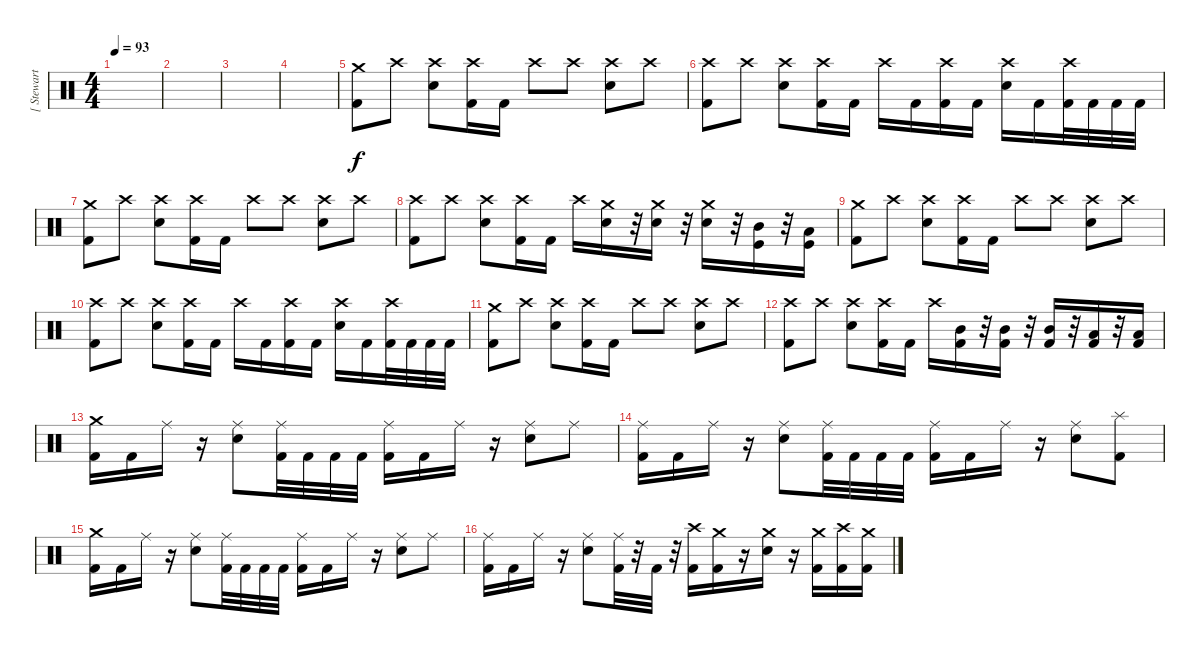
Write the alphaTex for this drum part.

\track ("[ Stewart ]" "[ Stewart ") {instrument percussion}
\staff {score}
\articulation defaults
\ts (4 4)
\tempo 93
\clef neutral
\ks c
|
|
|
|
("Kick (hit) 2" "Crash medium (hit)").8 "Crash high (hit)".8 ("Electric Snare (hit)" "Crash high (hit)").8 ("Kick (hit) 2" "Crash high (hit)").16 "Kick (hit) 2".16 "Crash high (hit)".8 "Crash high (hit)".8 ("Electric Snare (hit)" "Crash high (hit)").8 "Crash high (hit)".8 |
("Kick (hit) 2" "Crash high (hit)").8 "Crash high (hit)".8 ("Electric Snare (hit)" "Crash high (hit)").8 ("Kick (hit) 2" "Crash high (hit)").16 "Kick (hit) 2".16 "Crash high (hit)".16 "Kick (hit) 2".16 ("Kick (hit) 2" "Crash high (hit)").16 "Kick (hit) 2".16 ("Electric Snare (hit)" "Crash high (hit)").16 "Kick (hit) 2".16 ("Kick (hit) 2" "Crash high (hit)").32 "Kick (hit) 2".32 "Kick (hit) 2".32 "Kick (hit) 2".32 |
("Kick (hit) 2" "Crash medium (hit)").8 "Crash high (hit)".8 ("Electric Snare (hit)" "Crash high (hit)").8 ("Kick (hit) 2" "Crash high (hit)").16 "Kick (hit) 2".16 "Crash high (hit)".8 "Crash high (hit)".8 ("Electric Snare (hit)" "Crash high (hit)").8 "Crash high (hit)".8 |
("Kick (hit) 2" "Crash high (hit)").8 "Crash high (hit)".8 ("Electric Snare (hit)" "Crash high (hit)").8 ("Kick (hit) 2" "Crash high (hit)").16 "Kick (hit) 2".16 "Crash high (hit)".16 ("Electric Snare (hit)" "Crash medium (hit)").16 r.32 ("Electric Snare (hit)" "Crash medium (hit)").16 r.32 ("Electric Snare (hit)" "Crash medium (hit)").16 r.32 ("Mid Tom (hit)" "Kick (hit)").16 r.32 ("Low Tom (hit)" "Kick (hit)").16 |
("Kick (hit) 2" "Crash medium (hit)").8 "Crash high (hit)".8 ("Electric Snare (hit)" "Crash high (hit)").8 ("Kick (hit) 2" "Crash high (hit)").16 "Kick (hit) 2".16 "Crash high (hit)".8 "Crash high (hit)".8 ("Electric Snare (hit)" "Crash high (hit)").8 "Crash high (hit)".8 |
("Kick (hit) 2" "Crash high (hit)").8 "Crash high (hit)".8 ("Electric Snare (hit)" "Crash high (hit)").8 ("Kick (hit) 2" "Crash high (hit)").16 "Kick (hit) 2".16 "Crash high (hit)".16 "Kick (hit) 2".16 ("Kick (hit) 2" "Crash high (hit)").16 "Kick (hit) 2".16 ("Electric Snare (hit)" "Crash high (hit)").16 "Kick (hit) 2".16 ("Kick (hit) 2" "Crash high (hit)").32 "Kick (hit) 2".32 "Kick (hit) 2".32 "Kick (hit) 2".32 |
("Kick (hit) 2" "Crash medium (hit)").8 "Crash high (hit)".8 ("Electric Snare (hit)" "Crash high (hit)").8 ("Kick (hit) 2" "Crash high (hit)").16 "Kick (hit) 2".16 "Crash high (hit)".8 "Crash high (hit)".8 ("Electric Snare (hit)" "Crash high (hit)").8 "Crash high (hit)".8 |
("Kick (hit) 2" "Crash high (hit)").8 "Crash high (hit)".8 ("Electric Snare (hit)" "Crash high (hit)").8 ("Kick (hit) 2" "Crash high (hit)").16 "Kick (hit) 2".16 "Crash high (hit)".16 ("Mid Tom (hit)" "Kick (hit) 2").16 r.32 ("Mid Tom (hit)" "Kick (hit) 2").16 r.32 ("Mid Tom (hit)" "Kick (hit) 2").16 r.32 ("Low Tom (hit)" "Kick (hit) 2").16 r.32 ("Low Tom (hit)" "Kick (hit) 2").16 |
("Kick (hit) 2" "Crash medium (hit)").16 "Kick (hit) 2".16 "Ride (middle)".16 r.16 ("Electric Snare (hit)" "Ride (middle)").8 ("Kick (hit) 2" "Ride (middle)").32 "Kick (hit) 2".32 "Kick (hit) 2".32 "Kick (hit) 2".32 ("Kick (hit) 2" "Ride (middle)").16 "Kick (hit) 2".16 "Ride (middle)".16 r.16 ("Electric Snare (hit)" "Ride (middle)").8 "Ride (middle)".8 |
("Kick (hit) 2" "Ride (middle)").16 "Kick (hit) 2".16 "Ride (middle)".16 r.16 ("Electric Snare (hit)" "Ride (middle)").8 ("Kick (hit) 2" "Ride (middle)").32 "Kick (hit) 2".32 "Kick (hit) 2".32 "Kick (hit) 2".32 ("Kick (hit) 2" "Ride (middle)").16 "Kick (hit) 2".16 "Ride (middle)".16 r.16 ("Electric Snare (hit)" "Ride (middle)").8 ("Kick (hit) 2" "Splash (hit)").8 |
("Kick (hit) 2" "Crash medium (hit)").16 "Kick (hit) 2".16 "Ride (middle)".16 r.16 ("Electric Snare (hit)" "Ride (middle)").8 ("Kick (hit) 2" "Ride (middle)").32 "Kick (hit) 2".32 "Kick (hit) 2".32 "Kick (hit) 2".32 ("Kick (hit) 2" "Ride (middle)").16 "Kick (hit) 2".16 "Ride (middle)".16 r.16 ("Electric Snare (hit)" "Ride (middle)").8 "Ride (middle)".8 |
("Kick (hit) 2" "Ride (middle)").16 "Kick (hit) 2".16 "Ride (middle)".16 r.16 ("Electric Snare (hit)" "Ride (middle)").8 ("Kick (hit) 2" "Ride (middle)").32 r.32 "Kick (hit) 2".32 r.32 ("Kick (hit) 2" "Crash high (hit)").16 ("Kick (hit) 2" "Crash medium (hit)").16 r.16 ("Electric Snare (hit)" "Crash medium (hit)").16 r.16 ("Kick (hit) 2" "Crash medium (hit)").16 ("Kick (hit) 2" "Crash high (hit)").16 ("Kick (hit) 2" "Crash medium (hit)").16
